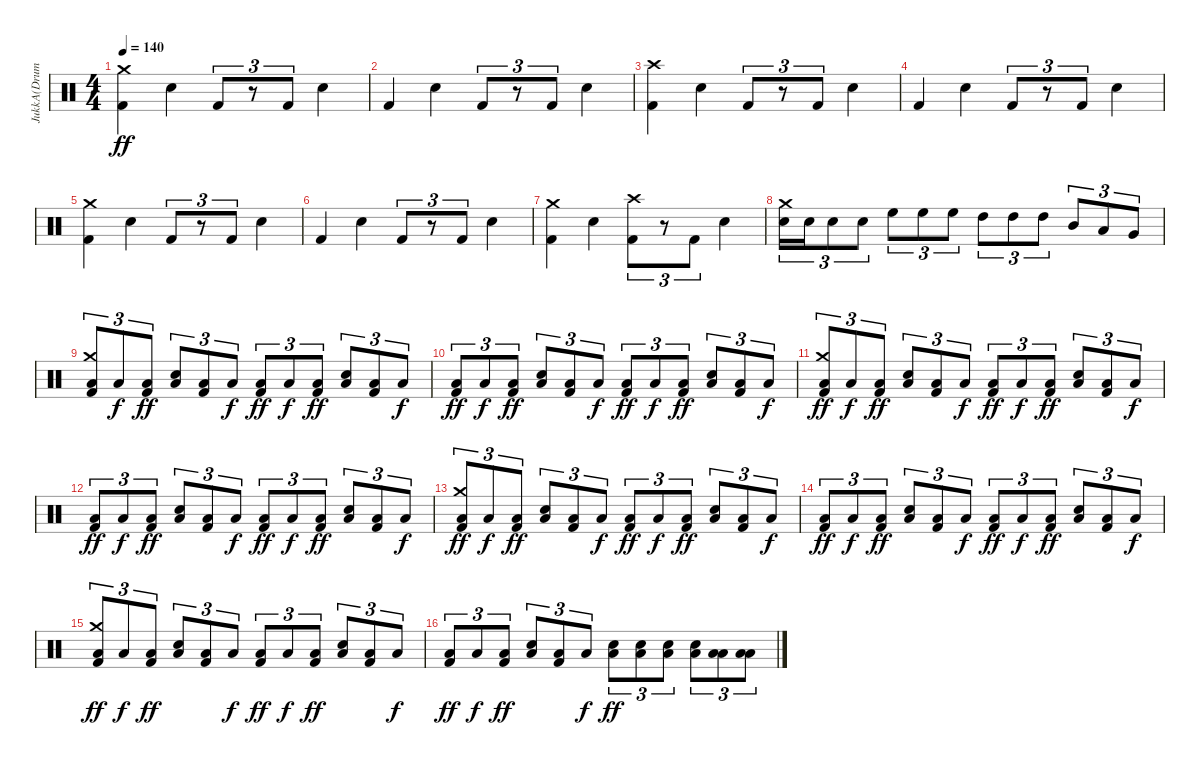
\track ("JukkA(Drums)" "JukkA(Drum") {instrument percussion}
\staff {score}
\articulation defaults
\ts (4 4)
\tempo 140
\clef neutral
\ks c
("Kick (hit) 2" "Crash medium (hit)").4{dy ff} "Snare (hit) 2".4 "Kick (hit) 2".8{tu (3 2)} r.8{tu (3 2)} "Kick (hit) 2".8{tu (3 2)} "Snare (hit) 2".4 |
"Kick (hit) 2".4 "Snare (hit) 2".4 "Kick (hit) 2".8{tu (3 2)} r.8{tu (3 2)} "Kick (hit) 2".8{tu (3 2)} "Snare (hit) 2".4 |
("Kick (hit) 2" "Crash high (hit)").4 "Snare (hit) 2".4 "Kick (hit) 2".8{tu (3 2)} r.8{tu (3 2)} "Kick (hit) 2".8{tu (3 2)} "Snare (hit) 2".4 |
"Kick (hit) 2".4 "Snare (hit) 2".4 "Kick (hit) 2".8{tu (3 2)} r.8{tu (3 2)} "Kick (hit) 2".8{tu (3 2)} "Snare (hit) 2".4 |
("Kick (hit) 2" "Crash medium (hit)").4 "Snare (hit) 2".4 "Kick (hit) 2".8{tu (3 2)} r.8{tu (3 2)} "Kick (hit) 2".8{tu (3 2)} "Snare (hit) 2".4 |
"Kick (hit) 2".4 "Snare (hit) 2".4 "Kick (hit) 2".8{tu (3 2)} r.8{tu (3 2)} "Kick (hit) 2".8{tu (3 2)} "Snare (hit) 2".4 |
("Kick (hit) 2" "Crash medium (hit)").4 "Snare (hit) 2".4 ("Kick (hit) 2" "Crash high (hit)").8{tu (3 2)} r.8{tu (3 2)} "Kick (hit) 2".8{tu (3 2)} "Snare (hit) 2".4 |
("Snare (hit) 2" "Crash medium (hit)").16{tu (3 2)} "Snare (hit) 2".16{tu (3 2)} "Snare (hit) 2".8{tu (3 2)} "Snare (hit) 2".8{tu (3 2)} "High Floor Tom (hit)".8{tu (3 2)} "High Floor Tom (hit)".8{tu (3 2)} "High Floor Tom (hit)".8{tu (3 2)} "High Tom (hit)".8{tu (3 2)} "High Tom (hit)".8{tu (3 2)} "High Tom (hit)".8{tu (3 2)} "Mid Tom (hit)".8{tu (3 2)} "Low Tom (hit)".8{tu (3 2)} "Very Low Tom (hit)".8{tu (3 2)} |
("Kick (hit) 2" "Crash medium (hit)" "Low Floor Tom (hit)").8{tu (3 2)} "Low Floor Tom (hit)".8{tu (3 2) dy f} ("Kick (hit) 2" "Low Floor Tom (hit)").8{tu (3 2) dy ff} ("Snare (hit) 2" "Low Floor Tom (hit)").8{tu (3 2)} ("Kick (hit) 2" "Low Floor Tom (hit)").8{tu (3 2)} "Low Floor Tom (hit)".8{tu (3 2) dy f} ("Kick (hit) 2" "Low Floor Tom (hit)").8{tu (3 2) dy ff} "Low Floor Tom (hit)".8{tu (3 2) dy f} ("Kick (hit) 2" "Low Floor Tom (hit)").8{tu (3 2) dy ff} ("Snare (hit) 2" "Low Floor Tom (hit)").8{tu (3 2)} ("Kick (hit) 2" "Low Floor Tom (hit)").8{tu (3 2)} "Low Floor Tom (hit)".8{tu (3 2) dy f} |
("Kick (hit) 2" "Low Floor Tom (hit)").8{tu (3 2) dy ff} "Low Floor Tom (hit)".8{tu (3 2) dy f} ("Kick (hit) 2" "Low Floor Tom (hit)").8{tu (3 2) dy ff} ("Snare (hit) 2" "Low Floor Tom (hit)").8{tu (3 2)} ("Kick (hit) 2" "Low Floor Tom (hit)").8{tu (3 2)} "Low Floor Tom (hit)".8{tu (3 2) dy f} ("Kick (hit) 2" "Low Floor Tom (hit)").8{tu (3 2) dy ff} "Low Floor Tom (hit)".8{tu (3 2) dy f} ("Kick (hit) 2" "Low Floor Tom (hit)").8{tu (3 2) dy ff} ("Snare (hit) 2" "Low Floor Tom (hit)").8{tu (3 2)} ("Kick (hit) 2" "Low Floor Tom (hit)").8{tu (3 2)} "Low Floor Tom (hit)".8{tu (3 2) dy f} |
("Kick (hit) 2" "Crash medium (hit)" "Low Floor Tom (hit)").8{tu (3 2) dy ff} "Low Floor Tom (hit)".8{tu (3 2) dy f} ("Kick (hit) 2" "Low Floor Tom (hit)").8{tu (3 2) dy ff} ("Snare (hit) 2" "Low Floor Tom (hit)").8{tu (3 2)} ("Kick (hit) 2" "Low Floor Tom (hit)").8{tu (3 2)} "Low Floor Tom (hit)".8{tu (3 2) dy f} ("Kick (hit) 2" "Low Floor Tom (hit)").8{tu (3 2) dy ff} "Low Floor Tom (hit)".8{tu (3 2) dy f} ("Kick (hit) 2" "Low Floor Tom (hit)").8{tu (3 2) dy ff} ("Snare (hit) 2" "Low Floor Tom (hit)").8{tu (3 2)} ("Kick (hit) 2" "Low Floor Tom (hit)").8{tu (3 2)} "Low Floor Tom (hit)".8{tu (3 2) dy f} |
("Kick (hit) 2" "Low Floor Tom (hit)").8{tu (3 2) dy ff} "Low Floor Tom (hit)".8{tu (3 2) dy f} ("Kick (hit) 2" "Low Floor Tom (hit)").8{tu (3 2) dy ff} ("Snare (hit) 2" "Low Floor Tom (hit)").8{tu (3 2)} ("Kick (hit) 2" "Low Floor Tom (hit)").8{tu (3 2)} "Low Floor Tom (hit)".8{tu (3 2) dy f} ("Kick (hit) 2" "Low Floor Tom (hit)").8{tu (3 2) dy ff} "Low Floor Tom (hit)".8{tu (3 2) dy f} ("Kick (hit) 2" "Low Floor Tom (hit)").8{tu (3 2) dy ff} ("Snare (hit) 2" "Low Floor Tom (hit)").8{tu (3 2)} ("Kick (hit) 2" "Low Floor Tom (hit)").8{tu (3 2)} "Low Floor Tom (hit)".8{tu (3 2) dy f} |
("Kick (hit) 2" "Crash medium (hit)" "Low Floor Tom (hit)").8{tu (3 2) dy ff} "Low Floor Tom (hit)".8{tu (3 2) dy f} ("Kick (hit) 2" "Low Floor Tom (hit)").8{tu (3 2) dy ff} ("Snare (hit) 2" "Low Floor Tom (hit)").8{tu (3 2)} ("Kick (hit) 2" "Low Floor Tom (hit)").8{tu (3 2)} "Low Floor Tom (hit)".8{tu (3 2) dy f} ("Kick (hit) 2" "Low Floor Tom (hit)").8{tu (3 2) dy ff} "Low Floor Tom (hit)".8{tu (3 2) dy f} ("Kick (hit) 2" "Low Floor Tom (hit)").8{tu (3 2) dy ff} ("Snare (hit) 2" "Low Floor Tom (hit)").8{tu (3 2)} ("Kick (hit) 2" "Low Floor Tom (hit)").8{tu (3 2)} "Low Floor Tom (hit)".8{tu (3 2) dy f} |
("Kick (hit) 2" "Low Floor Tom (hit)").8{tu (3 2) dy ff} "Low Floor Tom (hit)".8{tu (3 2) dy f} ("Kick (hit) 2" "Low Floor Tom (hit)").8{tu (3 2) dy ff} ("Snare (hit) 2" "Low Floor Tom (hit)").8{tu (3 2)} ("Kick (hit) 2" "Low Floor Tom (hit)").8{tu (3 2)} "Low Floor Tom (hit)".8{tu (3 2) dy f} ("Kick (hit) 2" "Low Floor Tom (hit)").8{tu (3 2) dy ff} "Low Floor Tom (hit)".8{tu (3 2) dy f} ("Kick (hit) 2" "Low Floor Tom (hit)").8{tu (3 2) dy ff} ("Snare (hit) 2" "Low Floor Tom (hit)").8{tu (3 2)} ("Kick (hit) 2" "Low Floor Tom (hit)").8{tu (3 2)} "Low Floor Tom (hit)".8{tu (3 2) dy f} |
("Kick (hit) 2" "Crash medium (hit)" "Low Floor Tom (hit)").8{tu (3 2) dy ff} "Low Floor Tom (hit)".8{tu (3 2) dy f} ("Kick (hit) 2" "Low Floor Tom (hit)").8{tu (3 2) dy ff} ("Snare (hit) 2" "Low Floor Tom (hit)").8{tu (3 2)} ("Kick (hit) 2" "Low Floor Tom (hit)").8{tu (3 2)} "Low Floor Tom (hit)".8{tu (3 2) dy f} ("Kick (hit) 2" "Low Floor Tom (hit)").8{tu (3 2) dy ff} "Low Floor Tom (hit)".8{tu (3 2) dy f} ("Kick (hit) 2" "Low Floor Tom (hit)").8{tu (3 2) dy ff} ("Snare (hit) 2" "Low Floor Tom (hit)").8{tu (3 2)} ("Kick (hit) 2" "Low Floor Tom (hit)").8{tu (3 2)} "Low Floor Tom (hit)".8{tu (3 2) dy f} |
("Kick (hit) 2" "Low Floor Tom (hit)").8{tu (3 2) dy ff} "Low Floor Tom (hit)".8{tu (3 2) dy f} ("Kick (hit) 2" "Low Floor Tom (hit)").8{tu (3 2) dy ff} ("Snare (hit) 2" "Low Floor Tom (hit)").8{tu (3 2)} ("Kick (hit) 2" "Low Floor Tom (hit)").8{tu (3 2)} "Low Floor Tom (hit)".8{tu (3 2) dy f} ("Snare (hit) 2" "Low Floor Tom (hit)").8{tu (3 2) dy ff} ("Snare (hit) 2" "Low Floor Tom (hit)").8{tu (3 2)} ("Snare (hit) 2" "Low Floor Tom (hit)").8{tu (3 2)} ("Snare (hit) 2" "Low Floor Tom (hit)").8{tu (3 2)} ("Low Tom (hit)" "Low Floor Tom (hit)").8{tu (3 2)} ("Low Floor Tom (hit)" "Low Floor Tom (hit)").8{tu (3 2)}
